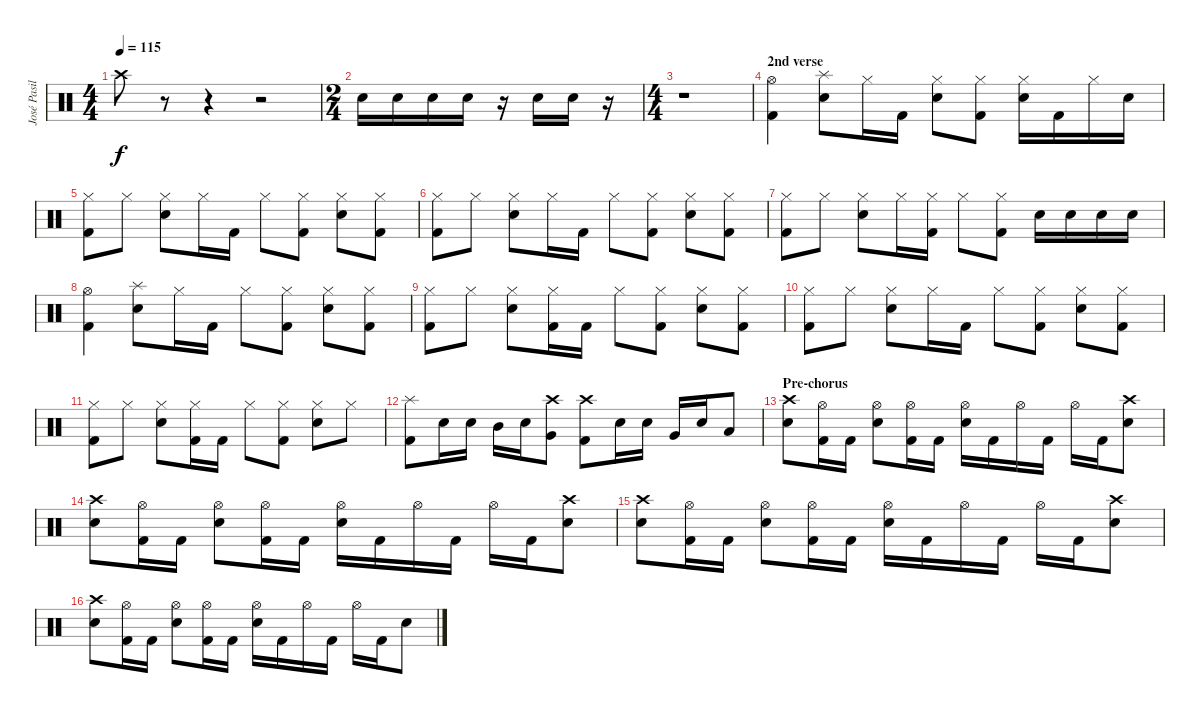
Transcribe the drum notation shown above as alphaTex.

\track ("José Pasillas" "José Pasil") {instrument percussion}
\staff {score}
\articulation defaults
\ts (4 4)
\tempo 115
\clef neutral
\ks c "Crash high (hit)".8{dy f}
r.8 r.4 r.2 |
\ts (2 4)
"Electric Snare (hit)".16 "Electric Snare (hit)".16 "Electric Snare (hit)".16 "Electric Snare (hit)".16 r.16 "Electric Snare (hit)".16 "Electric Snare (hit)".16 r.16 |
\ts (4 4)
r.1 |
\section ("" "2nd verse")
("Hi-Hat (open)" "Kick (hit) 2").4 ("Splash (hit)" "Electric Snare (hit)").8 "Hi-Hat (closed)".16 "Kick (hit) 2".16 ("Hi-Hat (closed)" "Electric Snare (hit)").8 ("Hi-Hat (closed)" "Kick (hit) 2").8 ("Hi-Hat (closed)" "Electric Snare (hit)").16 "Kick (hit) 2".16 "Hi-Hat (closed)".16 "Electric Snare (hit)".16 |
("Hi-Hat (closed)" "Kick (hit) 2").8 "Hi-Hat (closed)".8 ("Hi-Hat (closed)" "Electric Snare (hit)").8 "Hi-Hat (closed)".16 "Kick (hit) 2".16 "Hi-Hat (closed)".8 ("Hi-Hat (closed)" "Kick (hit) 2").8 ("Hi-Hat (closed)" "Electric Snare (hit)").8 ("Hi-Hat (closed)" "Kick (hit) 2").8 |
("Hi-Hat (closed)" "Kick (hit) 2").8 "Hi-Hat (closed)".8 ("Hi-Hat (closed)" "Electric Snare (hit)").8 "Hi-Hat (closed)".16 "Kick (hit) 2".16 "Hi-Hat (closed)".8 ("Hi-Hat (closed)" "Kick (hit) 2").8 ("Hi-Hat (closed)" "Electric Snare (hit)").8 ("Hi-Hat (closed)" "Kick (hit) 2").8 |
("Hi-Hat (closed)" "Kick (hit) 2").8 "Hi-Hat (closed)".8 ("Hi-Hat (closed)" "Electric Snare (hit)").8 "Hi-Hat (closed)".16 ("Hi-Hat (closed)" "Kick (hit) 2").16 "Hi-Hat (closed)".8 ("Hi-Hat (closed)" "Kick (hit) 2").8 "Electric Snare (hit)".16 "Electric Snare (hit)".16 "Electric Snare (hit)".16 "Electric Snare (hit)".16 |
("Hi-Hat (open)" "Kick (hit) 2").4 ("Splash (hit)" "Electric Snare (hit)").8 "Hi-Hat (closed)".16 "Kick (hit) 2".16 "Hi-Hat (closed)".8 ("Hi-Hat (closed)" "Kick (hit) 2").8 ("Hi-Hat (closed)" "Electric Snare (hit)").8 ("Hi-Hat (closed)" "Kick (hit) 2").8 |
("Hi-Hat (closed)" "Kick (hit) 2").8 "Hi-Hat (closed)".8 ("Hi-Hat (closed)" "Electric Snare (hit)").8 ("Hi-Hat (closed)" "Kick (hit) 2").16 "Kick (hit) 2".16 "Hi-Hat (closed)".8 ("Hi-Hat (closed)" "Kick (hit) 2").8 ("Hi-Hat (closed)" "Electric Snare (hit)").8 ("Hi-Hat (closed)" "Kick (hit) 2").8 |
("Hi-Hat (closed)" "Kick (hit) 2").8 "Hi-Hat (closed)".8 ("Hi-Hat (closed)" "Electric Snare (hit)").8 "Hi-Hat (closed)".16 "Kick (hit) 2".16 "Hi-Hat (closed)".8 ("Hi-Hat (closed)" "Kick (hit) 2").8 ("Hi-Hat (closed)" "Electric Snare (hit)").8 ("Hi-Hat (closed)" "Kick (hit) 2").8 |
("Hi-Hat (closed)" "Kick (hit) 2").8 "Hi-Hat (closed)".8 ("Hi-Hat (closed)" "Electric Snare (hit)").8 ("Hi-Hat (closed)" "Kick (hit) 2").16 "Kick (hit) 2".16 "Hi-Hat (closed)".8 ("Hi-Hat (closed)" "Kick (hit) 2").8 ("Hi-Hat (closed)" "Electric Snare (hit)").8 "Hi-Hat (closed)".8 |
("Splash (hit)" "Kick (hit) 2").8 "Electric Snare (hit)".16 "Electric Snare (hit)".16 "Mid Tom (hit)".16 "Electric Snare (hit)".16 ("Crash high (hit)" "Very Low Tom (hit)").8 ("Crash high (hit)" "Kick (hit) 2").8 "Electric Snare (hit)".16 "Electric Snare (hit)".16 "Very Low Tom (hit)".16 "Electric Snare (hit)".16 "Low Floor Tom (hit)".8 |
\section ("" "Pre-chorus")
("Crash high (hit)" "Electric Snare (hit)").8 ("Hi-Hat (open)" "Kick (hit) 2").16 "Kick (hit) 2".16 ("Hi-Hat (open)" "Electric Snare (hit)").8 ("Hi-Hat (open)" "Kick (hit) 2").16 "Kick (hit) 2".16 ("Hi-Hat (open)" "Electric Snare (hit)").16 "Kick (hit) 2".16 "Hi-Hat (open)".16 "Kick (hit) 2".16 "Hi-Hat (open)".16 "Kick (hit) 2".16 ("Crash high (hit)" "Electric Snare (hit)").8 |
("Crash high (hit)" "Electric Snare (hit)").8 ("Hi-Hat (open)" "Kick (hit) 2").16 "Kick (hit) 2".16 ("Hi-Hat (open)" "Electric Snare (hit)").8 ("Hi-Hat (open)" "Kick (hit) 2").16 "Kick (hit) 2".16 ("Hi-Hat (open)" "Electric Snare (hit)").16 "Kick (hit) 2".16 "Hi-Hat (open)".16 "Kick (hit) 2".16 "Hi-Hat (open)".16 "Kick (hit) 2".16 ("Crash high (hit)" "Electric Snare (hit)").8 |
("Crash high (hit)" "Electric Snare (hit)").8 ("Hi-Hat (open)" "Kick (hit) 2").16 "Kick (hit) 2".16 ("Hi-Hat (open)" "Electric Snare (hit)").8 ("Hi-Hat (open)" "Kick (hit) 2").16 "Kick (hit) 2".16 ("Hi-Hat (open)" "Electric Snare (hit)").16 "Kick (hit) 2".16 "Hi-Hat (open)".16 "Kick (hit) 2".16 "Hi-Hat (open)".16 "Kick (hit) 2".16 ("Crash high (hit)" "Electric Snare (hit)").8 |
("Crash high (hit)" "Electric Snare (hit)").8 ("Hi-Hat (open)" "Kick (hit) 2").16 "Kick (hit) 2".16 ("Hi-Hat (open)" "Electric Snare (hit)").8 ("Hi-Hat (open)" "Kick (hit) 2").16 "Kick (hit) 2".16 ("Hi-Hat (open)" "Electric Snare (hit)").16 "Kick (hit) 2".16 "Hi-Hat (open)".16 "Kick (hit) 2".16 "Hi-Hat (open)".16 "Kick (hit) 2".16 "Electric Snare (hit)".8
